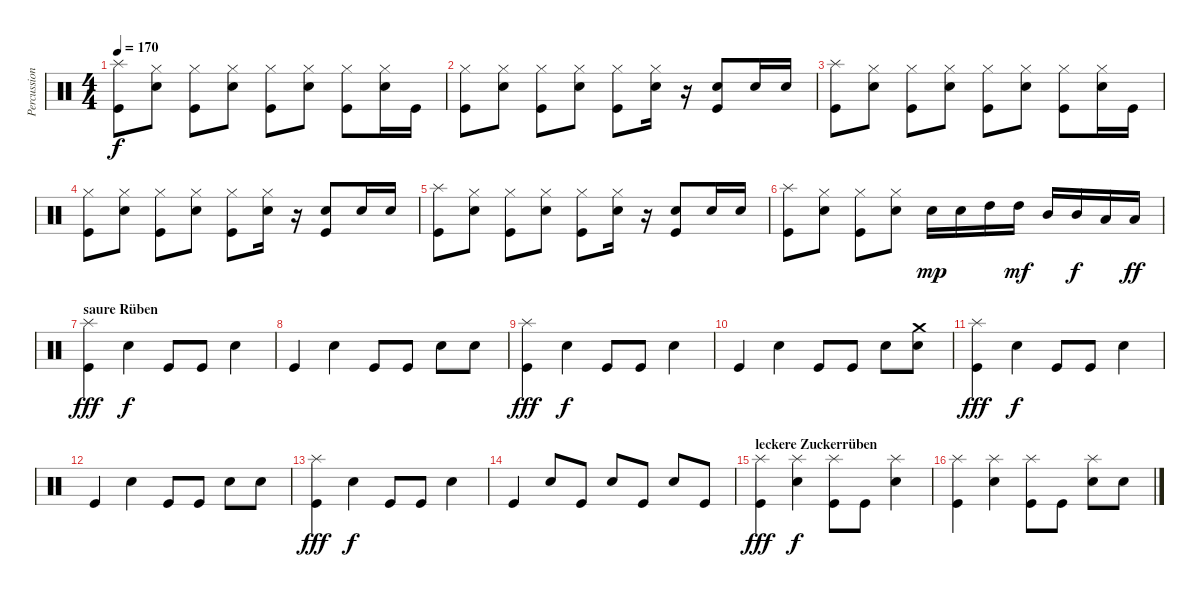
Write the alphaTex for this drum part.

\track ("Percussion" "Percussion") {instrument percussion}
\staff {score}
\articulation defaults
\ts (4 4)
\tempo 170
\clef neutral
\ks c
("Splash (hit)" "Kick (hit)").8{dy f} ("Hi-Hat (closed)" "Electric Snare (hit)").8 ("Hi-Hat (closed)" "Kick (hit)").8 ("Hi-Hat (closed)" "Electric Snare (hit)").8 ("Hi-Hat (closed)" "Kick (hit)").8 ("Hi-Hat (closed)" "Electric Snare (hit)").8 ("Hi-Hat (closed)" "Kick (hit)").8 ("Hi-Hat (closed)" "Electric Snare (hit)").16 "Kick (hit)".16 |
("Hi-Hat (closed)" "Kick (hit)").8 ("Hi-Hat (closed)" "Electric Snare (hit)").8 ("Hi-Hat (closed)" "Kick (hit)").8 ("Hi-Hat (closed)" "Electric Snare (hit)").8 ("Hi-Hat (closed)" "Kick (hit)").8 ("Hi-Hat (closed)" "Electric Snare (hit)").16 r.16 ("Electric Snare (hit)" "Kick (hit)").8 "Electric Snare (hit)".16 "Electric Snare (hit)".16 |
("Splash (hit)" "Kick (hit)").8 ("Hi-Hat (closed)" "Electric Snare (hit)").8 ("Hi-Hat (closed)" "Kick (hit)").8 ("Hi-Hat (closed)" "Electric Snare (hit)").8 ("Hi-Hat (closed)" "Kick (hit)").8 ("Hi-Hat (closed)" "Electric Snare (hit)").8 ("Hi-Hat (closed)" "Kick (hit)").8 ("Hi-Hat (closed)" "Electric Snare (hit)").16 "Kick (hit)".16 |
("Hi-Hat (closed)" "Kick (hit)").8 ("Hi-Hat (closed)" "Electric Snare (hit)").8 ("Hi-Hat (closed)" "Kick (hit)").8 ("Hi-Hat (closed)" "Electric Snare (hit)").8 ("Hi-Hat (closed)" "Kick (hit)").8 ("Hi-Hat (closed)" "Electric Snare (hit)").16 r.16 ("Electric Snare (hit)" "Kick (hit)").8 "Electric Snare (hit)".16 "Electric Snare (hit)".16 |
("Splash (hit)" "Kick (hit)").8 ("Hi-Hat (closed)" "Electric Snare (hit)").8 ("Hi-Hat (closed)" "Kick (hit)").8 ("Hi-Hat (closed)" "Electric Snare (hit)").8 ("Hi-Hat (closed)" "Kick (hit)").8 ("Hi-Hat (closed)" "Electric Snare (hit)").16 r.16 ("Electric Snare (hit)" "Kick (hit)").8 "Electric Snare (hit)".16 "Electric Snare (hit)".16 |
("Splash (hit)" "Kick (hit)").8 ("Hi-Hat (closed)" "Electric Snare (hit)").8 ("Hi-Hat (closed)" "Kick (hit)").8 ("Hi-Hat (closed)" "Electric Snare (hit)").8 "Electric Snare (hit)".16{dy mp} "Electric Snare (hit)".16 "High Tom (hit)".16 "High Tom (hit)".16{dy mf} "Mid Tom (hit)".16 "Mid Tom (hit)".16{dy f} "Low Tom (hit)".16 "Low Tom (hit)".16{dy ff} |
\section ("" "saure Rüben")
("Splash (hit)" "Kick (hit)").4{dy fff} "Electric Snare (hit)".4{dy f} "Kick (hit)".8 "Kick (hit)".8 "Electric Snare (hit)".4 |
"Kick (hit)".4 "Electric Snare (hit)".4 "Kick (hit)".8 "Kick (hit)".8 "Electric Snare (hit)".8 "Electric Snare (hit)".8 |
("Splash (hit)" "Kick (hit)").4{dy fff} "Electric Snare (hit)".4{dy f} "Kick (hit)".8 "Kick (hit)".8 "Electric Snare (hit)".4 |
"Kick (hit)".4 "Electric Snare (hit)".4 "Kick (hit)".8 "Kick (hit)".8 "Electric Snare (hit)".8 ("Crash medium (hit)" "Electric Snare (hit)").8 |
("Splash (hit)" "Kick (hit)").4{dy fff} "Electric Snare (hit)".4{dy f} "Kick (hit)".8 "Kick (hit)".8 "Electric Snare (hit)".4 |
"Kick (hit)".4 "Electric Snare (hit)".4 "Kick (hit)".8 "Kick (hit)".8 "Electric Snare (hit)".8 "Electric Snare (hit)".8 |
("Splash (hit)" "Kick (hit)").4{dy fff} "Electric Snare (hit)".4{dy f} "Kick (hit)".8 "Kick (hit)".8 "Electric Snare (hit)".4 |
"Kick (hit)".4 "Electric Snare (hit)".8 "Kick (hit)".8 "Electric Snare (hit)".8 "Kick (hit)".8 "Electric Snare (hit)".8 "Kick (hit)".8 |
\section ("" "leckere Zuckerrüben")
("Splash (hit)" "Kick (hit)").4{dy fff} ("Splash (hit)" "Electric Snare (hit)").4{dy f} ("Splash (hit)" "Kick (hit)").8 "Kick (hit)".8 ("Splash (hit)" "Electric Snare (hit)").4 |
("Splash (hit)" "Kick (hit)").4 ("Splash (hit)" "Electric Snare (hit)").4 ("Splash (hit)" "Kick (hit)").8 "Kick (hit)".8 ("Splash (hit)" "Electric Snare (hit)").8 "Electric Snare (hit)".8
